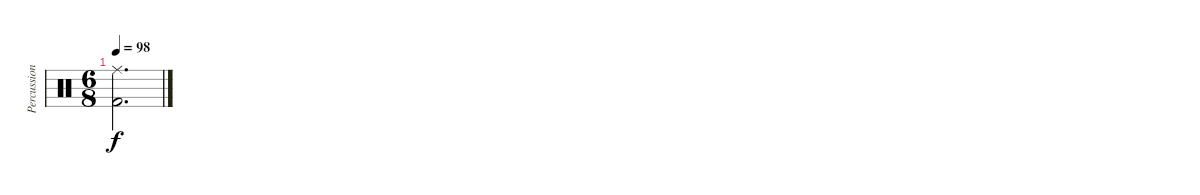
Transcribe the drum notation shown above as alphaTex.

\track ("Percussion" "Percussion") {instrument percussion}
\staff {score}
\articulation defaults
\ts (6 8)
\tempo 98
\clef neutral
\ks c
("Ride (middle)" "Kick (hit) 2").2{d dy f}
